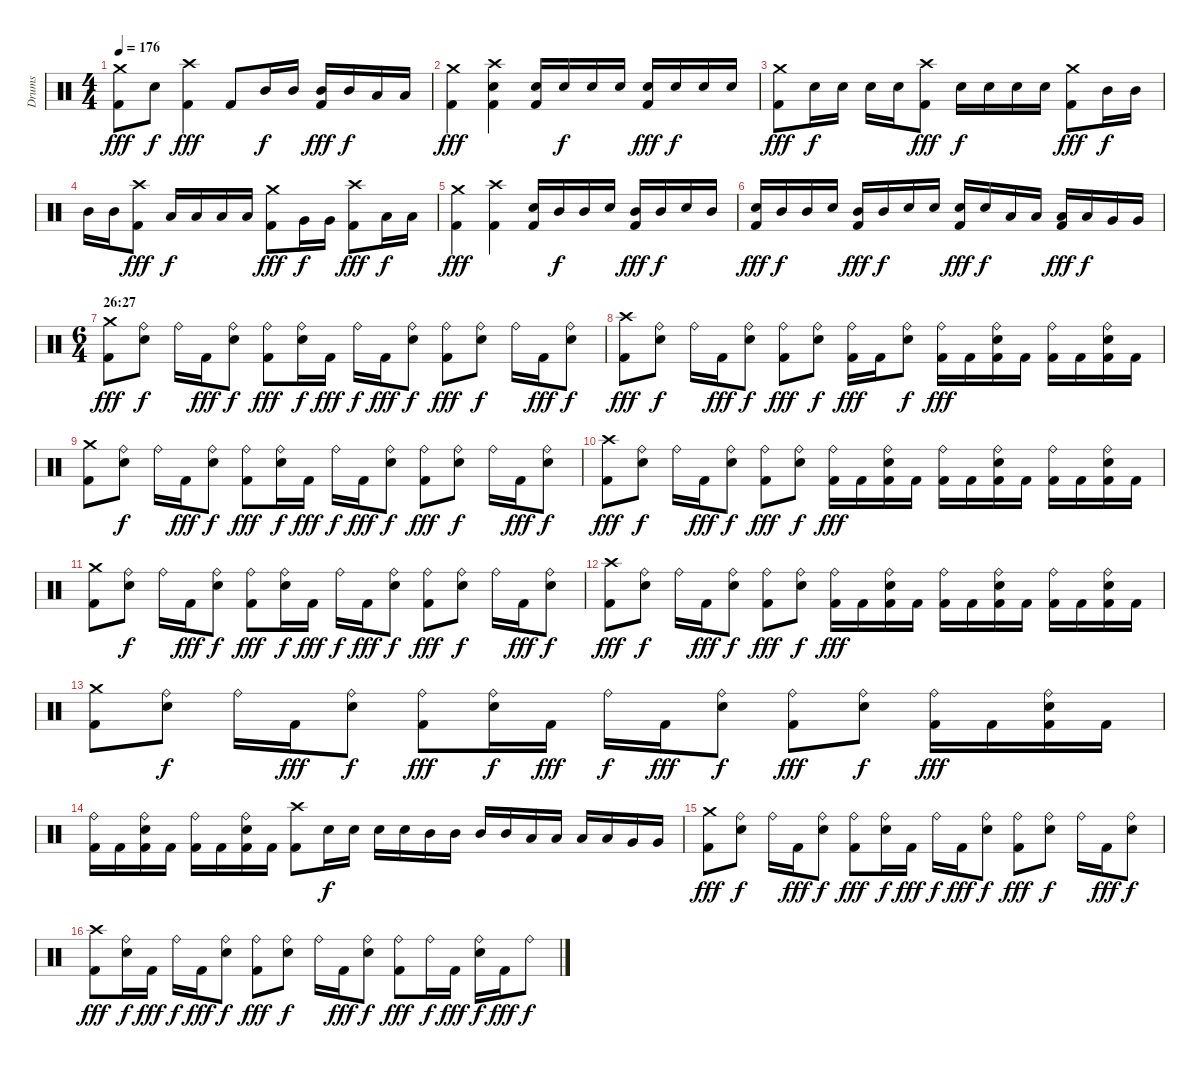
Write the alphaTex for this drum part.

\track ("Drums" "Drums") {instrument percussion}
\staff {score}
\articulation defaults
\ts (4 4)
\tempo 176
\clef neutral
\ks c
("Crash medium (hit)" "Kick (hit) 2").8{dy fff} "Snare (hit) 2".8{dy f} ("Crash high (hit)" "Kick (hit) 2").4{dy fff} "Kick (hit) 2".8 "Mid Tom (hit)".16{dy f} "Mid Tom (hit)".16 ("Mid Tom (hit)" "Kick (hit) 2").16{dy fff} "Mid Tom (hit)".16{dy f} "Low Tom (hit)".16 "Low Tom (hit)".16 |
("Crash medium (hit)" "Kick (hit) 2").4{dy fff} ("Crash high (hit)" "Snare (hit) 2" "Kick (hit) 2").4 ("Snare (hit) 2" "Kick (hit) 2").16 "Snare (hit) 2".16{dy f} "Snare (hit) 2".16 "Snare (hit) 2".16 ("Snare (hit) 2" "Kick (hit) 2").16{dy fff} "Snare (hit) 2".16{dy f} "Snare (hit) 2".16 "Snare (hit) 2".16 |
("Crash medium (hit)" "Kick (hit) 2").8{dy fff} "Snare (hit) 2".16{dy f} "Snare (hit) 2".16 "Snare (hit) 2".16 "Snare (hit) 2".16 ("Crash high (hit)" "Kick (hit) 2").8{dy fff} "Snare (hit) 2".16{dy f} "Snare (hit) 2".16 "Snare (hit) 2".16 "Snare (hit) 2".16 ("Crash medium (hit)" "Kick (hit) 2").8{dy fff} "Mid Tom (hit)".16{dy f} "Mid Tom (hit)".16 |
"Mid Tom (hit)".16 "Mid Tom (hit)".16 ("Crash high (hit)" "Kick (hit) 2").8{dy fff} "Low Tom (hit)".16{dy f} "Low Tom (hit)".16 "Low Tom (hit)".16 "Low Tom (hit)".16 ("Crash medium (hit)" "Kick (hit) 2").8{dy fff} "Very Low Tom (hit)".16{dy f} "Very Low Tom (hit)".16 ("Crash high (hit)" "Kick (hit) 2").8{dy fff} "Low Floor Tom (hit)".16{dy f} "Low Floor Tom (hit)".16 |
("Crash medium (hit)" "Kick (hit) 2").4{dy fff} ("Crash high (hit)" "Kick (hit) 2").4 ("Snare (hit) 2" "Kick (hit) 2").16 "Mid Tom (hit)".16{dy f} "Mid Tom (hit)".16 "Snare (hit) 2".16 ("Mid Tom (hit)" "Kick (hit) 2").16{dy fff} "Mid Tom (hit)".16{dy f} "Snare (hit) 2".16 "Mid Tom (hit)".16 |
("Snare (hit) 2" "Kick (hit) 2").16{dy fff} "Mid Tom (hit)".16{dy f} "Mid Tom (hit)".16 "Snare (hit) 2".16 ("Mid Tom (hit)" "Kick (hit) 2").16{dy fff} "Mid Tom (hit)".16{dy f} "Snare (hit) 2".16 "Snare (hit) 2".16 ("Snare (hit) 2" "Kick (hit) 2").16{dy fff} "Snare (hit) 2".16{dy f} "Low Tom (hit)".16 "Low Tom (hit)".16 ("Low Tom (hit)" "Kick (hit) 2").16{dy fff} "Low Tom (hit)".16{dy f} "Very Low Tom (hit)".16 "Very Low Tom (hit)".16 |
\ts (6 4)
\section ("" "26:27")
("Crash medium (hit)" "Kick (hit) 2").8{dy fff} ("Ride (bell)" "Snare (hit) 2").8{dy f} "Ride (bell)".16 "Kick (hit) 2".16{dy fff} ("Ride (bell)" "Snare (hit) 2").8{dy f} ("Ride (bell)" "Kick (hit) 2").8{dy fff} ("Ride (bell)" "Snare (hit) 2").16{dy f} "Kick (hit) 2".16{dy fff} "Ride (bell)".16{dy f} "Kick (hit) 2".16{dy fff} ("Ride (bell)" "Snare (hit) 2").8{dy f} ("Ride (bell)" "Kick (hit) 2").8{dy fff} ("Ride (bell)" "Snare (hit) 2").8{dy f} "Ride (bell)".16 "Kick (hit) 2".16{dy fff} ("Ride (bell)" "Snare (hit) 2").8{dy f} |
("Crash high (hit)" "Kick (hit) 2").8{dy fff} ("Ride (bell)" "Snare (hit) 2").8{dy f} "Ride (bell)".16 "Kick (hit) 2".16{dy fff} ("Ride (bell)" "Snare (hit) 2").8{dy f} ("Ride (bell)" "Kick (hit) 2").8{dy fff} ("Ride (bell)" "Snare (hit) 2").8{dy f} ("Ride (bell)" "Kick (hit) 2").16{dy fff} "Kick (hit) 2".16 ("Ride (bell)" "Snare (hit) 2").8{dy f} ("Ride (bell)" "Kick (hit) 2").16{dy fff} "Kick (hit) 2".16 ("Ride (bell)" "Snare (hit) 2" "Kick (hit) 2").16 "Kick (hit) 2".16 ("Ride (bell)" "Kick (hit) 2").16 "Kick (hit) 2".16 ("Ride (bell)" "Snare (hit) 2" "Kick (hit) 2").16 "Kick (hit) 2".16 |
("Crash medium (hit)" "Kick (hit) 2").8 ("Ride (bell)" "Snare (hit) 2").8{dy f} "Ride (bell)".16 "Kick (hit) 2".16{dy fff} ("Ride (bell)" "Snare (hit) 2").8{dy f} ("Ride (bell)" "Kick (hit) 2").8{dy fff} ("Ride (bell)" "Snare (hit) 2").16{dy f} "Kick (hit) 2".16{dy fff} "Ride (bell)".16{dy f} "Kick (hit) 2".16{dy fff} ("Ride (bell)" "Snare (hit) 2").8{dy f} ("Ride (bell)" "Kick (hit) 2").8{dy fff} ("Ride (bell)" "Snare (hit) 2").8{dy f} "Ride (bell)".16 "Kick (hit) 2".16{dy fff} ("Ride (bell)" "Snare (hit) 2").8{dy f} |
("Crash high (hit)" "Kick (hit) 2").8{dy fff} ("Ride (bell)" "Snare (hit) 2").8{dy f} "Ride (bell)".16 "Kick (hit) 2".16{dy fff} ("Ride (bell)" "Snare (hit) 2").8{dy f} ("Ride (bell)" "Kick (hit) 2").8{dy fff} ("Ride (bell)" "Snare (hit) 2").8{dy f} ("Ride (bell)" "Kick (hit) 2").16{dy fff} "Kick (hit) 2".16 ("Ride (bell)" "Snare (hit) 2" "Kick (hit) 2").16 "Kick (hit) 2".16 ("Ride (bell)" "Kick (hit) 2").16 "Kick (hit) 2".16 ("Ride (bell)" "Snare (hit) 2" "Kick (hit) 2").16 "Kick (hit) 2".16 ("Ride (bell)" "Kick (hit) 2").16 "Kick (hit) 2".16 ("Ride (bell)" "Snare (hit) 2" "Kick (hit) 2").16 "Kick (hit) 2".16 |
("Crash medium (hit)" "Kick (hit) 2").8 ("Ride (bell)" "Snare (hit) 2").8{dy f} "Ride (bell)".16 "Kick (hit) 2".16{dy fff} ("Ride (bell)" "Snare (hit) 2").8{dy f} ("Ride (bell)" "Kick (hit) 2").8{dy fff} ("Ride (bell)" "Snare (hit) 2").16{dy f} "Kick (hit) 2".16{dy fff} "Ride (bell)".16{dy f} "Kick (hit) 2".16{dy fff} ("Ride (bell)" "Snare (hit) 2").8{dy f} ("Ride (bell)" "Kick (hit) 2").8{dy fff} ("Ride (bell)" "Snare (hit) 2").8{dy f} "Ride (bell)".16 "Kick (hit) 2".16{dy fff} ("Ride (bell)" "Snare (hit) 2").8{dy f} |
("Crash high (hit)" "Kick (hit) 2").8{dy fff} ("Ride (bell)" "Snare (hit) 2").8{dy f} "Ride (bell)".16 "Kick (hit) 2".16{dy fff} ("Ride (bell)" "Snare (hit) 2").8{dy f} ("Ride (bell)" "Kick (hit) 2").8{dy fff} ("Ride (bell)" "Snare (hit) 2").8{dy f} ("Ride (bell)" "Kick (hit) 2").16{dy fff} "Kick (hit) 2".16 ("Ride (bell)" "Snare (hit) 2" "Kick (hit) 2").16 "Kick (hit) 2".16 ("Ride (bell)" "Kick (hit) 2").16 "Kick (hit) 2".16 ("Ride (bell)" "Snare (hit) 2" "Kick (hit) 2").16 "Kick (hit) 2".16 ("Ride (bell)" "Kick (hit) 2").16 "Kick (hit) 2".16 ("Ride (bell)" "Snare (hit) 2" "Kick (hit) 2").16 "Kick (hit) 2".16 |
("Crash medium (hit)" "Kick (hit) 2").8 ("Ride (bell)" "Snare (hit) 2").8{dy f} "Ride (bell)".16 "Kick (hit) 2".16{dy fff} ("Ride (bell)" "Snare (hit) 2").8{dy f} ("Ride (bell)" "Kick (hit) 2").8{dy fff} ("Ride (bell)" "Snare (hit) 2").16{dy f} "Kick (hit) 2".16{dy fff} "Ride (bell)".16{dy f} "Kick (hit) 2".16{dy fff} ("Ride (bell)" "Snare (hit) 2").8{dy f} ("Ride (bell)" "Kick (hit) 2").8{dy fff} ("Ride (bell)" "Snare (hit) 2").8{dy f} ("Ride (bell)" "Kick (hit) 2").16{dy fff} "Kick (hit) 2".16 ("Ride (bell)" "Snare (hit) 2" "Kick (hit) 2").16 "Kick (hit) 2".16 |
("Ride (bell)" "Kick (hit) 2").16 "Kick (hit) 2".16 ("Ride (bell)" "Snare (hit) 2" "Kick (hit) 2").16 "Kick (hit) 2".16 ("Ride (bell)" "Kick (hit) 2").16 "Kick (hit) 2".16 ("Ride (bell)" "Snare (hit) 2" "Kick (hit) 2").16 "Kick (hit) 2".16 ("Crash high (hit)" "Kick (hit) 2").8 "Snare (hit) 2".16{dy f} "Snare (hit) 2".16 "Snare (hit) 2".16 "Snare (hit) 2".16 "Mid Tom (hit)".16 "Mid Tom (hit)".16 "Mid Tom (hit)".16 "Mid Tom (hit)".16 "Low Tom (hit)".16 "Low Tom (hit)".16 "Low Tom (hit)".16 "Low Tom (hit)".16 "Very Low Tom (hit)".16 "Very Low Tom (hit)".16 |
("Crash medium (hit)" "Kick (hit) 2").8{dy fff} ("Ride (bell)" "Snare (hit) 2").8{dy f} "Ride (bell)".16 "Kick (hit) 2".16{dy fff} ("Ride (bell)" "Snare (hit) 2").8{dy f} ("Ride (bell)" "Kick (hit) 2").8{dy fff} ("Ride (bell)" "Snare (hit) 2").16{dy f} "Kick (hit) 2".16{dy fff} "Ride (bell)".16{dy f} "Kick (hit) 2".16{dy fff} ("Ride (bell)" "Snare (hit) 2").8{dy f} ("Ride (bell)" "Kick (hit) 2").8{dy fff} ("Ride (bell)" "Snare (hit) 2").8{dy f} "Ride (bell)".16 "Kick (hit) 2".16{dy fff} ("Ride (bell)" "Snare (hit) 2").8{dy f} |
("Crash high (hit)" "Kick (hit) 2").8{dy fff} ("Ride (bell)" "Snare (hit) 2").16{dy f} "Kick (hit) 2".16{dy fff} "Ride (bell)".16{dy f} "Kick (hit) 2".16{dy fff} ("Ride (bell)" "Snare (hit) 2").8{dy f} ("Ride (bell)" "Kick (hit) 2").8{dy fff} ("Ride (bell)" "Snare (hit) 2").8{dy f} "Ride (bell)".16 "Kick (hit) 2".16{dy fff} ("Ride (bell)" "Snare (hit) 2").8{dy f} ("Ride (bell)" "Kick (hit) 2").8{dy fff} "Ride (bell)".16{dy f} "Kick (hit) 2".16{dy fff} ("Ride (bell)" "Snare (hit) 2").16{dy f} "Kick (hit) 2".16{dy fff} "Ride (bell)".8{dy f}
